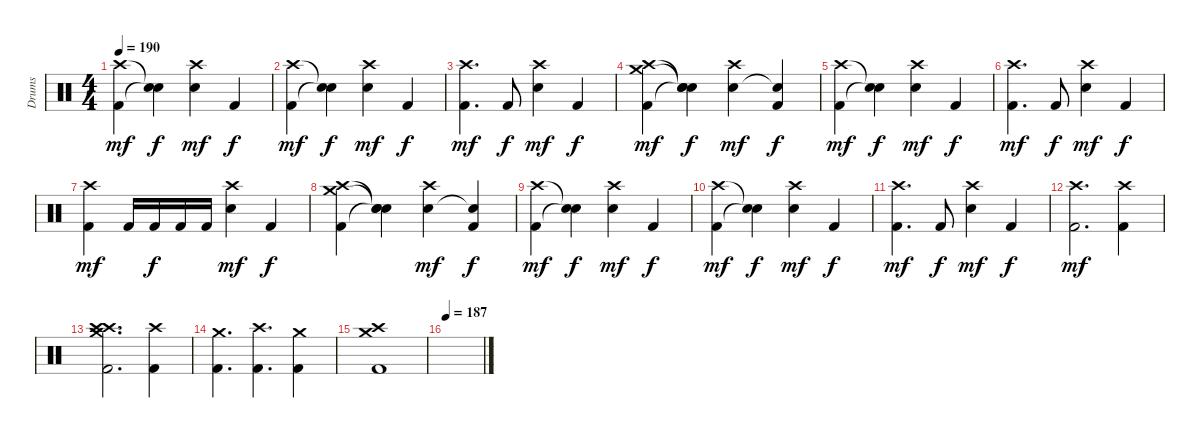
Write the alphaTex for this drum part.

\track ("Drums" "Drums") {instrument percussion}
\staff {score}
\articulation defaults
\ts (4 4)
\tempo 190
\clef neutral
\ks c
("Crash high (hit)" "Kick (hit) 2").4{dy mf} ("Snare (hit)"{t} "Snare (hit)"{t}).4{dy f} ("Crash high (hit)" "Snare (hit) 2").4{dy mf} "Kick (hit) 2".4{dy f} |
("Crash high (hit)" "Kick (hit) 2").4{dy mf} ("Snare (hit)"{t} "Snare (hit)"{t}).4{dy f} ("Crash high (hit)" "Snare (hit) 2").4{dy mf} "Kick (hit) 2".4{dy f} |
("Crash high (hit)" "Kick (hit) 2").4{d dy mf} "Kick (hit) 2".8{dy f} ("Crash high (hit)" "Snare (hit) 2").4{dy mf} "Kick (hit) 2".4{dy f} |
("Crash high (hit)" "Crash medium (hit)" "Kick (hit) 2").4{dy mf} ("Snare (hit)"{t} "Snare (hit)"{t} "Snare (hit)"{t}).4{dy f} ("Crash high (hit)" "Snare (hit) 2").4{dy mf} ("Kick (hit) 2" "Snare (hit)"{t}).4{dy f} |
("Crash high (hit)" "Kick (hit) 2").4{dy mf} ("Snare (hit)"{t} "Snare (hit)"{t}).4{dy f} ("Crash high (hit)" "Snare (hit) 2").4{dy mf} "Kick (hit) 2".4{dy f} |
("Crash high (hit)" "Kick (hit) 2").4{d dy mf} "Kick (hit) 2".8{dy f} ("Crash high (hit)" "Snare (hit) 2").4{dy mf} "Kick (hit) 2".4{dy f} |
("Crash high (hit)" "Kick (hit) 2").4{dy mf} "Kick (hit) 2".16 "Kick (hit) 2".16{dy f} "Kick (hit) 2".16 "Kick (hit) 2".16 ("Crash high (hit)" "Snare (hit) 2").4{dy mf} "Kick (hit) 2".4{dy f} |
("Crash high (hit)" "Crash medium (hit)" "Kick (hit) 2").4 ("Snare (hit)"{t} "Snare (hit)"{t} "Snare (hit)"{t}).4 ("Crash high (hit)" "Snare (hit) 2").4{dy mf} ("Kick (hit) 2" "Snare (hit)"{t}).4{dy f} |
("Crash high (hit)" "Kick (hit) 2").4{dy mf} ("Snare (hit)"{t} "Snare (hit)"{t}).4{dy f} ("Crash high (hit)" "Snare (hit) 2").4{dy mf} "Kick (hit) 2".4{dy f} |
("Crash high (hit)" "Kick (hit) 2").4{dy mf} ("Snare (hit)"{t} "Snare (hit)"{t}).4{dy f} ("Crash high (hit)" "Snare (hit) 2").4{dy mf} "Kick (hit) 2".4{dy f} |
("Kick (hit) 2" "Crash high (hit)").4{d dy mf} "Kick (hit) 2".8{dy f} ("Snare (hit) 2" "Crash high (hit)").4{dy mf} "Kick (hit) 2".4{dy f} |
("Crash high (hit)" "Kick (hit) 2").2{d dy mf} ("Crash high (hit)" "Kick (hit) 2").4 |
("Crash high (hit)" "Crash medium (hit)" "Kick (hit) 2" "Crash high (hit)").2{d} ("Kick (hit) 2" "Crash high (hit)").4 |
("Kick (hit) 2" "Crash medium (hit)").4{d} ("Crash high (hit)" "Kick (hit) 2").4{d} ("Crash medium (hit)" "Kick (hit) 2").4 |
("Crash high (hit)" "Crash medium (hit)" "Kick (hit) 2").1 |
\tempo 187
